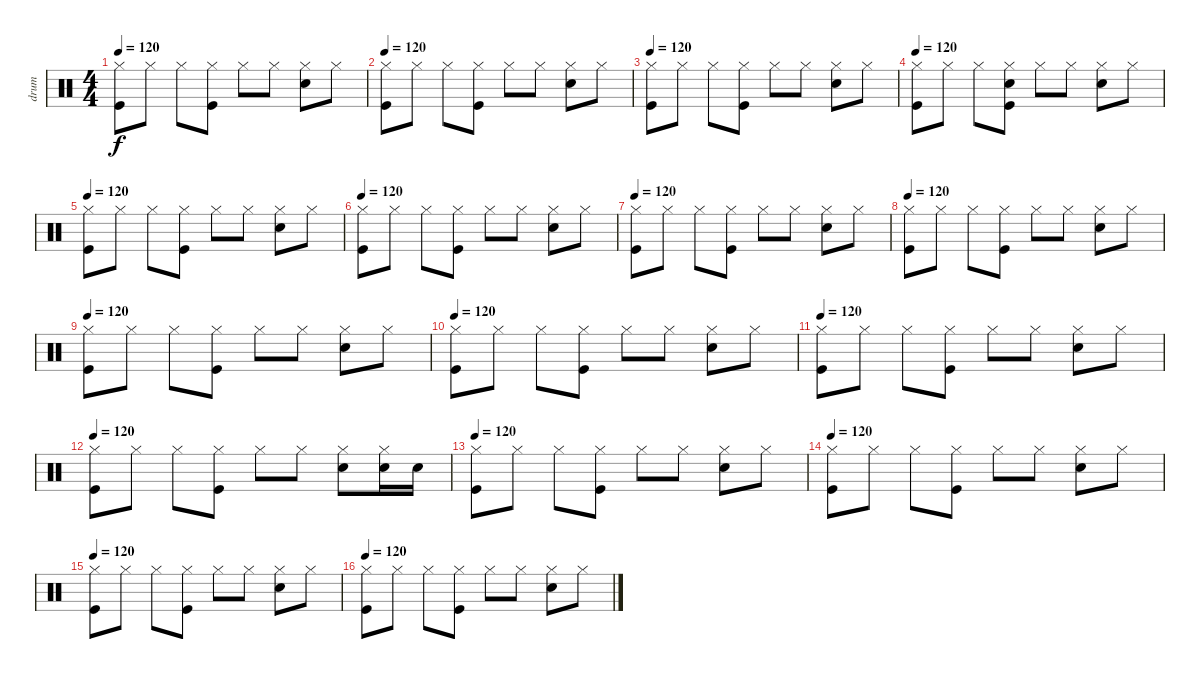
\track ("drum" "drum") {instrument percussion}
\staff {score}
\articulation defaults
\ts (4 4)
\tempo 120
\clef neutral
\ks c
("Hi-Hat (closed)" "Kick (hit)").8{dy f} "Hi-Hat (closed)".8 "Hi-Hat (closed)".8 ("Kick (hit)" "Hi-Hat (closed)").8 "Hi-Hat (closed)".8 "Hi-Hat (closed)".8 ("Electric Snare (hit)" "Hi-Hat (closed)").8 "Hi-Hat (closed)".8 |
\tempo 120
("Hi-Hat (closed)" "Kick (hit)").8 "Hi-Hat (closed)".8 "Hi-Hat (closed)".8 ("Kick (hit)" "Hi-Hat (closed)").8 "Hi-Hat (closed)".8 "Hi-Hat (closed)".8 ("Electric Snare (hit)" "Hi-Hat (closed)").8 "Hi-Hat (closed)".8 |
\tempo 120
("Hi-Hat (closed)" "Kick (hit)").8 "Hi-Hat (closed)".8 "Hi-Hat (closed)".8 ("Kick (hit)" "Hi-Hat (closed)").8 "Hi-Hat (closed)".8 "Hi-Hat (closed)".8 ("Electric Snare (hit)" "Hi-Hat (closed)").8 "Hi-Hat (closed)".8 |
\tempo 120
("Hi-Hat (closed)" "Kick (hit)").8 "Hi-Hat (closed)".8 "Hi-Hat (closed)".8 ("Kick (hit)" "Electric Snare (hit)" "Hi-Hat (closed)").8 "Hi-Hat (closed)".8 "Hi-Hat (closed)".8 ("Electric Snare (hit)" "Hi-Hat (closed)").8 "Hi-Hat (closed)".8 |
\tempo 120
("Hi-Hat (closed)" "Kick (hit)").8 "Hi-Hat (closed)".8 "Hi-Hat (closed)".8 ("Kick (hit)" "Hi-Hat (closed)").8 "Hi-Hat (closed)".8 "Hi-Hat (closed)".8 ("Electric Snare (hit)" "Hi-Hat (closed)").8 "Hi-Hat (closed)".8 |
\tempo 120
("Hi-Hat (closed)" "Kick (hit)").8 "Hi-Hat (closed)".8 "Hi-Hat (closed)".8 ("Kick (hit)" "Hi-Hat (closed)").8 "Hi-Hat (closed)".8 "Hi-Hat (closed)".8 ("Electric Snare (hit)" "Hi-Hat (closed)").8 "Hi-Hat (closed)".8 |
\tempo 120
("Hi-Hat (closed)" "Kick (hit)").8 "Hi-Hat (closed)".8 "Hi-Hat (closed)".8 ("Kick (hit)" "Hi-Hat (closed)").8 "Hi-Hat (closed)".8 "Hi-Hat (closed)".8 ("Electric Snare (hit)" "Hi-Hat (closed)").8 "Hi-Hat (closed)".8 |
\tempo 120
("Hi-Hat (closed)" "Kick (hit)").8 "Hi-Hat (closed)".8 "Hi-Hat (closed)".8 ("Kick (hit)" "Hi-Hat (closed)").8 "Hi-Hat (closed)".8 "Hi-Hat (closed)".8 ("Electric Snare (hit)" "Hi-Hat (closed)").8 "Hi-Hat (closed)".8 |
\tempo 120
("Hi-Hat (closed)" "Kick (hit)").8 "Hi-Hat (closed)".8 "Hi-Hat (closed)".8 ("Kick (hit)" "Hi-Hat (closed)").8 "Hi-Hat (closed)".8 "Hi-Hat (closed)".8 ("Electric Snare (hit)" "Hi-Hat (closed)").8 "Hi-Hat (closed)".8 |
\tempo 120
("Hi-Hat (closed)" "Kick (hit)").8 "Hi-Hat (closed)".8 "Hi-Hat (closed)".8 ("Kick (hit)" "Hi-Hat (closed)").8 "Hi-Hat (closed)".8 "Hi-Hat (closed)".8 ("Electric Snare (hit)" "Hi-Hat (closed)").8 "Hi-Hat (closed)".8 |
\tempo 120
("Hi-Hat (closed)" "Kick (hit)").8 "Hi-Hat (closed)".8 "Hi-Hat (closed)".8 ("Kick (hit)" "Hi-Hat (closed)").8 "Hi-Hat (closed)".8 "Hi-Hat (closed)".8 ("Electric Snare (hit)" "Hi-Hat (closed)").8 "Hi-Hat (closed)".8 |
\tempo 120
("Hi-Hat (closed)" "Kick (hit)").8 "Hi-Hat (closed)".8 "Hi-Hat (closed)".8 ("Kick (hit)" "Hi-Hat (closed)").8 "Hi-Hat (closed)".8 "Hi-Hat (closed)".8 ("Electric Snare (hit)" "Hi-Hat (closed)").8 ("Electric Snare (hit)" "Hi-Hat (closed)").16 "Electric Snare (hit)".16 |
\tempo 120
("Hi-Hat (closed)" "Kick (hit)").8 "Hi-Hat (closed)".8 "Hi-Hat (closed)".8 ("Kick (hit)" "Hi-Hat (closed)").8 "Hi-Hat (closed)".8 "Hi-Hat (closed)".8 ("Electric Snare (hit)" "Hi-Hat (closed)").8 "Hi-Hat (closed)".8 |
\tempo 120
("Hi-Hat (closed)" "Kick (hit)").8 "Hi-Hat (closed)".8 "Hi-Hat (closed)".8 ("Kick (hit)" "Hi-Hat (closed)").8 "Hi-Hat (closed)".8 "Hi-Hat (closed)".8 ("Electric Snare (hit)" "Hi-Hat (closed)").8 "Hi-Hat (closed)".8 |
\tempo 120
("Hi-Hat (closed)" "Kick (hit)").8 "Hi-Hat (closed)".8 "Hi-Hat (closed)".8 ("Kick (hit)" "Hi-Hat (closed)").8 "Hi-Hat (closed)".8 "Hi-Hat (closed)".8 ("Electric Snare (hit)" "Hi-Hat (closed)").8 "Hi-Hat (closed)".8 |
\tempo 120
("Hi-Hat (closed)" "Kick (hit)").8 "Hi-Hat (closed)".8 "Hi-Hat (closed)".8 ("Kick (hit)" "Hi-Hat (closed)").8 "Hi-Hat (closed)".8 "Hi-Hat (closed)".8 ("Electric Snare (hit)" "Hi-Hat (closed)").8 "Hi-Hat (closed)".8
